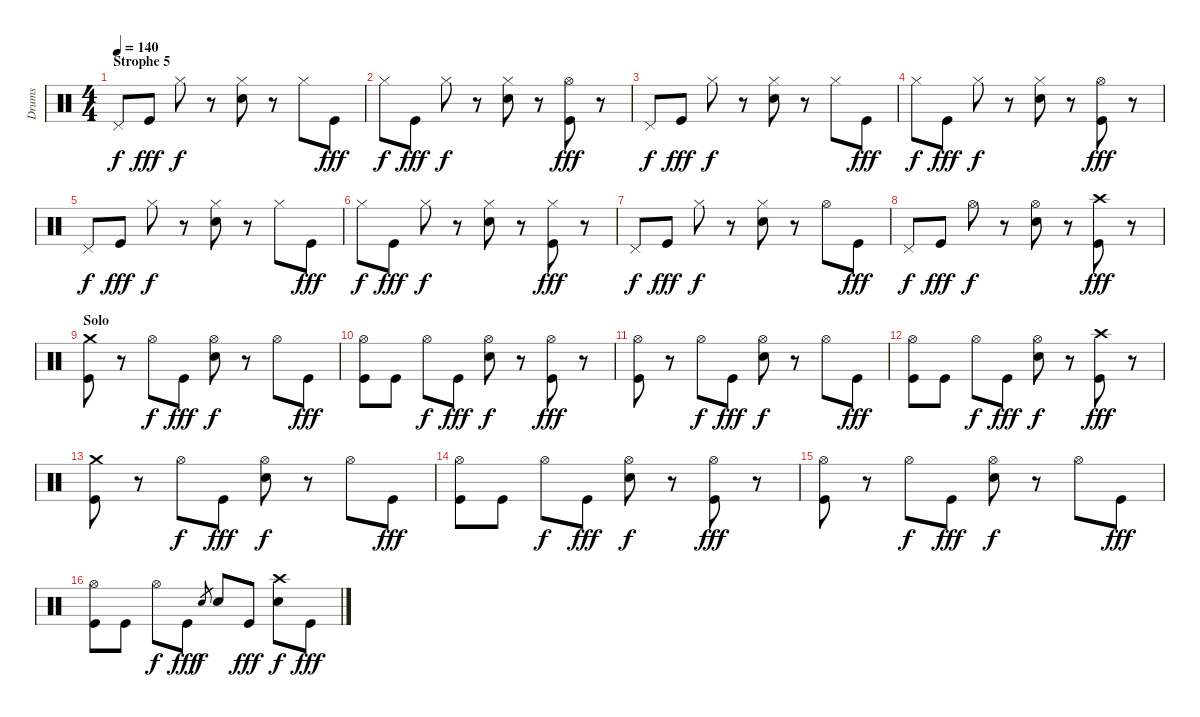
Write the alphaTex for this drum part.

\track ("Drums" "Drums") {instrument percussion}
\staff {score}
\articulation defaults
\ts (4 4)
\section ("" "Strophe 5")
\tempo 140
\clef neutral
\ks c "Pedal Hi-Hat (hit)".8{dy f} "Kick (hit)".8{dy fff} "Hi-Hat (closed)".8{dy f}
r.8 ("Hi-Hat (closed)" "Electric Snare (hit)").8 r.8 "Hi-Hat (closed)".8 "Kick (hit)".8{dy fff} |
"Hi-Hat (closed)".8{dy f} "Kick (hit)".8{dy fff} "Hi-Hat (closed)".8{dy f} r.8 ("Hi-Hat (closed)" "Electric Snare (hit)").8 r.8 ("Hi-Hat (open)" "Kick (hit)").8{dy fff} r.8 |
"Pedal Hi-Hat (hit)".8{dy f} "Kick (hit)".8{dy fff} "Hi-Hat (closed)".8{dy f} r.8 ("Hi-Hat (closed)" "Electric Snare (hit)").8 r.8 "Hi-Hat (closed)".8 "Kick (hit)".8{dy fff} |
"Hi-Hat (closed)".8{dy f} "Kick (hit)".8{dy fff} "Hi-Hat (closed)".8{dy f} r.8 ("Hi-Hat (closed)" "Electric Snare (hit)").8 r.8 ("Hi-Hat (open)" "Kick (hit)").8{dy fff} r.8 |
"Pedal Hi-Hat (hit)".8{dy f} "Kick (hit)".8{dy fff} "Hi-Hat (closed)".8{dy f} r.8 ("Hi-Hat (closed)" "Electric Snare (hit)").8 r.8 "Hi-Hat (closed)".8 "Kick (hit)".8{dy fff} |
"Hi-Hat (closed)".8{dy f} "Kick (hit)".8{dy fff} "Hi-Hat (closed)".8{dy f} r.8 ("Hi-Hat (closed)" "Electric Snare (hit)").8 r.8 ("Hi-Hat (closed)" "Kick (hit)").8{dy fff} r.8 |
"Pedal Hi-Hat (hit)".8{dy f} "Kick (hit)".8{dy fff} "Hi-Hat (closed)".8{dy f} r.8 ("Hi-Hat (closed)" "Electric Snare (hit)").8 r.8 "Hi-Hat (open)".8 "Kick (hit)".8{dy fff} |
"Pedal Hi-Hat (hit)".8{dy f} "Kick (hit)".8{dy fff} "Hi-Hat (open)".8{dy f} r.8 ("Hi-Hat (open)" "Electric Snare (hit)").8 r.8 ("Crash high (hit)" "Kick (hit)").8{dy fff} r.8 |
\section ("" "Solo")
("Crash medium (hit)" "Kick (hit)").8 r.8 "Hi-Hat (open)".8{dy f} "Kick (hit)".8{dy fff} ("Hi-Hat (open)" "Electric Snare (hit)").8{dy f} r.8 "Hi-Hat (open)".8 "Kick (hit)".8{dy fff} |
("Hi-Hat (open)" "Kick (hit)").8 "Kick (hit)".8 "Hi-Hat (open)".8{dy f} "Kick (hit)".8{dy fff} ("Hi-Hat (open)" "Electric Snare (hit)").8{dy f} r.8 ("Hi-Hat (open)" "Kick (hit)").8{dy fff} r.8 |
("Hi-Hat (open)" "Kick (hit)").8 r.8 "Hi-Hat (open)".8{dy f} "Kick (hit)".8{dy fff} ("Hi-Hat (open)" "Electric Snare (hit)").8{dy f} r.8 "Hi-Hat (open)".8 "Kick (hit)".8{dy fff} |
("Hi-Hat (open)" "Kick (hit)").8 "Kick (hit)".8 "Hi-Hat (open)".8{dy f} "Kick (hit)".8{dy fff} ("Hi-Hat (open)" "Electric Snare (hit)").8{dy f} r.8 ("Crash high (hit)" "Kick (hit)").8{dy fff} r.8 |
("Crash medium (hit)" "Kick (hit)").8 r.8 "Hi-Hat (open)".8{dy f} "Kick (hit)".8{dy fff} ("Hi-Hat (open)" "Electric Snare (hit)").8{dy f} r.8 "Hi-Hat (open)".8 "Kick (hit)".8{dy fff} |
("Hi-Hat (open)" "Kick (hit)").8 "Kick (hit)".8 "Hi-Hat (open)".8{dy f} "Kick (hit)".8{dy fff} ("Hi-Hat (open)" "Electric Snare (hit)").8{dy f} r.8 ("Hi-Hat (open)" "Kick (hit)").8{dy fff} r.8 |
("Hi-Hat (open)" "Kick (hit)").8 r.8 "Hi-Hat (open)".8{dy f} "Kick (hit)".8{dy fff} ("Hi-Hat (open)" "Electric Snare (hit)").8{dy f} r.8 "Hi-Hat (open)".8 "Kick (hit)".8{dy fff} |
("Hi-Hat (open)" "Kick (hit)").8 "Kick (hit)".8 "Hi-Hat (open)".8{dy f} "Kick (hit)".8{dy fff} "Electric Snare (hit)".8{gr dy f} "Electric Snare (hit)".8 "Kick (hit)".8{dy fff} ("Crash high (hit)" "Electric Snare (hit)").8{dy f} "Kick (hit)".8{dy fff}
